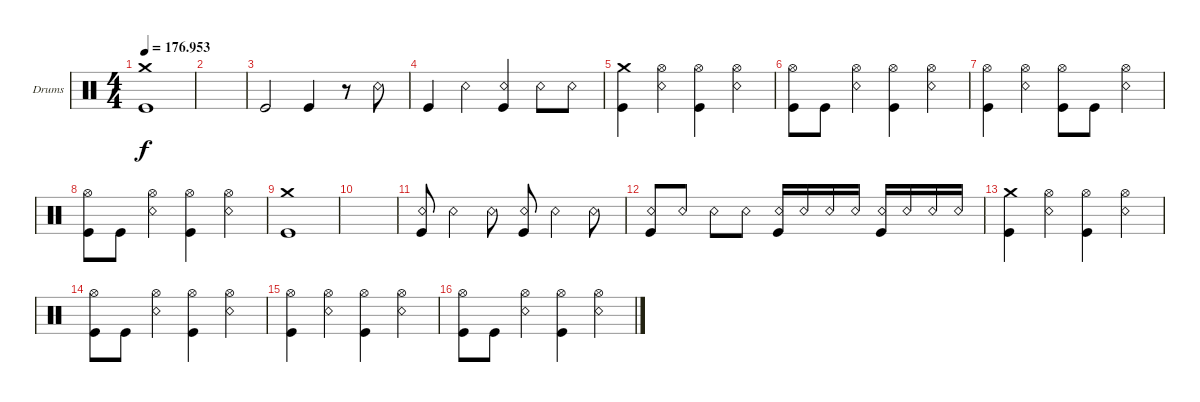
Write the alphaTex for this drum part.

\defaultSystemsLayout 4
\bracketExtendMode groupsimilarinstruments
\firstSystemTrackNameOrientation horizontal
\otherSystemsTrackNameOrientation horizontal
\track ("Christopher" "Drums") {instrument percussion}
\staff {score}
\articulation defaults
\ts (4 4)
\tempo
176.953
\accidentals auto
\clef neutral
\ottava regular
\simile none
\ks c
("Kick (hit)" "Crash medium (hit)").1{dy f} |
|
"Kick (hit)".2 "Kick (hit)".4 r.8 "Snare (rim shot)".8 |
"Kick (hit)".4 "Snare (rim shot)".4 ("Snare (rim shot)" "Kick (hit)").4 "Snare (rim shot)".8 "Snare (rim shot)".8 |
("Crash medium (hit)" "Kick (hit)").4 ("Snare (rim shot)" "Hi-Hat (open)").4 ("Hi-Hat (open)" "Kick (hit)").4 ("Snare (rim shot)" "Hi-Hat (open)").4 |
("Kick (hit)" "Hi-Hat (open)").8 "Kick (hit)".8 ("Snare (rim shot)" "Hi-Hat (open)").4 ("Kick (hit)" "Hi-Hat (open)").4 ("Snare (rim shot)" "Hi-Hat (open)").4 |
("Kick (hit)" "Hi-Hat (open)").4 ("Snare (rim shot)" "Hi-Hat (open)").4 ("Hi-Hat (open)" "Kick (hit)").8 "Kick (hit)".8 ("Snare (rim shot)" "Hi-Hat (open)").4 |
("Kick (hit)" "Hi-Hat (open)").8 "Kick (hit)".8 ("Snare (rim shot)" "Hi-Hat (open)").4 ("Kick (hit)" "Hi-Hat (open)").4 ("Snare (rim shot)" "Hi-Hat (open)").4 |
("Kick (hit)" "Crash medium (hit)").1 |
|
("Snare (rim shot)" "Kick (hit)").8 "Snare (rim shot)".4 "Snare (rim shot)".8 ("Snare (rim shot)" "Kick (hit)").8 "Snare (rim shot)".4 "Snare (rim shot)".8 |
("Snare (rim shot)" "Kick (hit)").8 "Snare (rim shot)".8 "Snare (rim shot)".8 "Snare (rim shot)".8 ("Snare (rim shot)" "Kick (hit)").16 "Snare (rim shot)".16 "Snare (rim shot)".16 "Snare (rim shot)".16 ("Snare (rim shot)" "Kick (hit)").16 "Snare (rim shot)".16 "Snare (rim shot)".16 "Snare (rim shot)".16 |
("Crash medium (hit)" "Kick (hit)").4 ("Snare (rim shot)" "Hi-Hat (open)").4 ("Hi-Hat (open)" "Kick (hit)").4 ("Snare (rim shot)" "Hi-Hat (open)").4 |
("Kick (hit)" "Hi-Hat (open)").8 "Kick (hit)".8 ("Snare (rim shot)" "Hi-Hat (open)").4 ("Kick (hit)" "Hi-Hat (open)").4 ("Snare (rim shot)" "Hi-Hat (open)").4 |
("Kick (hit)" "Hi-Hat (open)").4 ("Snare (rim shot)" "Hi-Hat (open)").4 ("Hi-Hat (open)" "Kick (hit)").4 ("Snare (rim shot)" "Hi-Hat (open)").4 |
("Kick (hit)" "Hi-Hat (open)").8 "Kick (hit)".8 ("Snare (rim shot)" "Hi-Hat (open)").4 ("Kick (hit)" "Hi-Hat (open)").4 ("Snare (rim shot)" "Hi-Hat (open)").4
